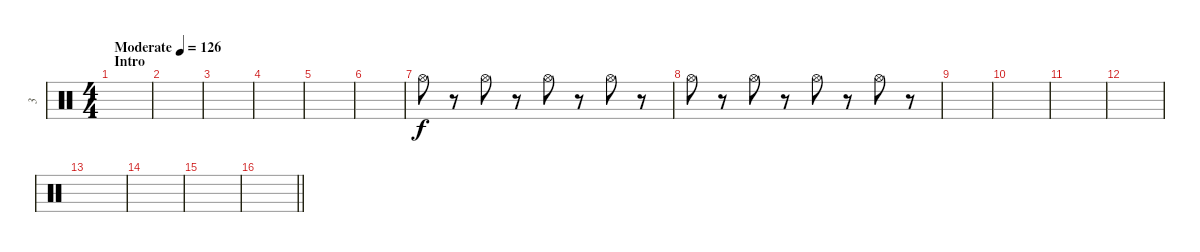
\track ("3" "3") {instrument percussion}
\staff {score}
\articulation defaults
\ts (4 4)
\section ("" "Intro ")
\tempo (126 "Moderate")
\clef neutral
\ks c
|
|
|
|
|
|
"Hi-Hat (open)".8 r.8 "Hi-Hat (open)".8 r.8 "Hi-Hat (open)".8 r.8 "Hi-Hat (open)".8 r.8 |
"Hi-Hat (open)".8 r.8 "Hi-Hat (open)".8 r.8 "Hi-Hat (open)".8 r.8 "Hi-Hat (open)".8 r.8 |
|
|
|
|
|
|
|
\barLineRight lightlight
